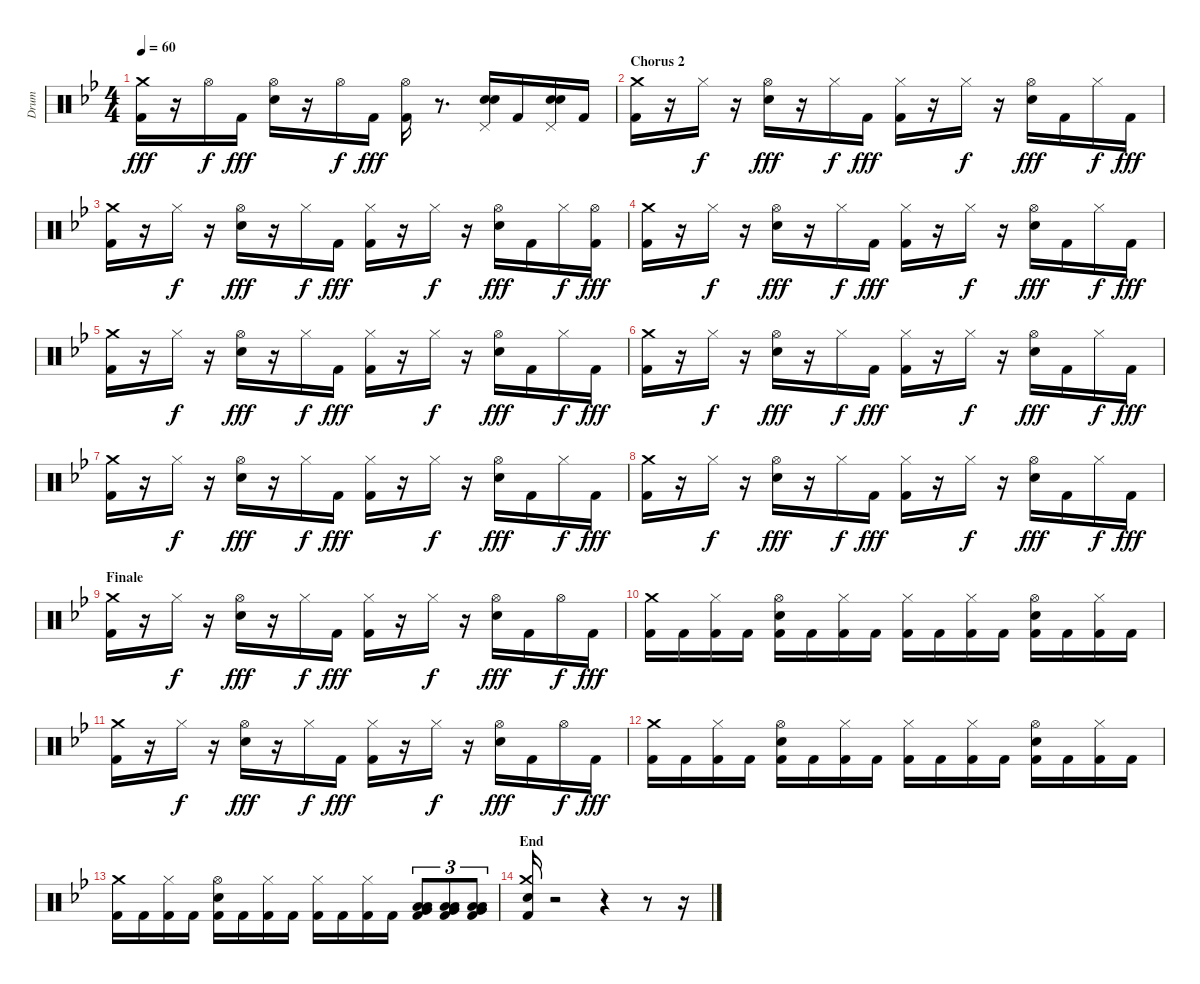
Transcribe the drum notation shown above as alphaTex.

\track ("Drum" "Drum") {instrument percussion}
\staff {score}
\articulation defaults
\ts (4 4)
\tempo 60
\clef neutral
\ks gminor
("Kick (hit) 2" "Crash medium (hit)").16{dy fff} r.16 "Hi-Hat (open)".16{dy f} "Kick (hit) 2".16{dy fff} ("Electric Snare (hit)" "Hi-Hat (open)").16 r.16 "Hi-Hat (open)".16{dy f} "Kick (hit) 2".16{dy fff} ("Kick (hit) 2" "Hi-Hat (open)").16 r.8{d} ("Electric Snare (hit)" "Electric Snare (hit)" "Pedal Hi-Hat (hit)").16 "Kick (hit) 2".16 ("Electric Snare (hit)" "Electric Snare (hit)" "Pedal Hi-Hat (hit)").16 "Kick (hit) 2".16 |
\section ("" "Chorus 2")
("Kick (hit) 2" "Crash medium (hit)").16 r.16 "Hi-Hat (closed)".16{dy f} r.16 ("Electric Snare (hit)" "Hi-Hat (open)").16{dy fff} r.16 "Hi-Hat (closed)".16{dy f} "Kick (hit) 2".16{dy fff} ("Kick (hit) 2" "Hi-Hat (closed)").16 r.16 "Hi-Hat (closed)".16{dy f} r.16 ("Electric Snare (hit)" "Hi-Hat (open)").16{dy fff} "Kick (hit) 2".16 "Hi-Hat (closed)".16{dy f} "Kick (hit) 2".16{dy fff} |
("Kick (hit) 2" "Crash medium (hit)").16 r.16 "Hi-Hat (closed)".16{dy f} r.16 ("Electric Snare (hit)" "Hi-Hat (open)").16{dy fff} r.16 "Hi-Hat (closed)".16{dy f} "Kick (hit) 2".16{dy fff} ("Kick (hit) 2" "Hi-Hat (closed)").16 r.16 "Hi-Hat (closed)".16{dy f} r.16 ("Electric Snare (hit)" "Hi-Hat (open)").16{dy fff} "Kick (hit) 2".16 "Hi-Hat (closed)".16{dy f} ("Kick (hit) 2" "Hi-Hat (open)").16{dy fff} |
("Kick (hit) 2" "Crash medium (hit)").16 r.16 "Hi-Hat (closed)".16{dy f} r.16 ("Electric Snare (hit)" "Hi-Hat (open)").16{dy fff} r.16 "Hi-Hat (closed)".16{dy f} "Kick (hit) 2".16{dy fff} ("Kick (hit) 2" "Hi-Hat (closed)").16 r.16 "Hi-Hat (closed)".16{dy f} r.16 ("Electric Snare (hit)" "Hi-Hat (open)").16{dy fff} "Kick (hit) 2".16 "Hi-Hat (closed)".16{dy f} "Kick (hit) 2".16{dy fff} |
("Kick (hit) 2" "Crash medium (hit)").16 r.16 "Hi-Hat (closed)".16{dy f} r.16 ("Electric Snare (hit)" "Hi-Hat (open)").16{dy fff} r.16 "Hi-Hat (closed)".16{dy f} "Kick (hit) 2".16{dy fff} ("Kick (hit) 2" "Hi-Hat (closed)").16 r.16 "Hi-Hat (closed)".16{dy f} r.16 ("Electric Snare (hit)" "Hi-Hat (open)").16{dy fff} "Kick (hit) 2".16 "Hi-Hat (closed)".16{dy f} "Kick (hit) 2".16{dy fff} |
("Kick (hit) 2" "Crash medium (hit)").16 r.16 "Hi-Hat (closed)".16{dy f} r.16 ("Electric Snare (hit)" "Hi-Hat (open)").16{dy fff} r.16 "Hi-Hat (closed)".16{dy f} "Kick (hit) 2".16{dy fff} ("Kick (hit) 2" "Hi-Hat (closed)").16 r.16 "Hi-Hat (closed)".16{dy f} r.16 ("Electric Snare (hit)" "Hi-Hat (open)").16{dy fff} "Kick (hit) 2".16 "Hi-Hat (closed)".16{dy f} "Kick (hit) 2".16{dy fff} |
("Kick (hit) 2" "Crash medium (hit)").16 r.16 "Hi-Hat (closed)".16{dy f} r.16 ("Electric Snare (hit)" "Hi-Hat (open)").16{dy fff} r.16 "Hi-Hat (closed)".16{dy f} "Kick (hit) 2".16{dy fff} ("Kick (hit) 2" "Hi-Hat (closed)").16 r.16 "Hi-Hat (closed)".16{dy f} r.16 ("Electric Snare (hit)" "Hi-Hat (open)").16{dy fff} "Kick (hit) 2".16 "Hi-Hat (closed)".16{dy f} "Kick (hit) 2".16{dy fff} |
("Kick (hit) 2" "Crash medium (hit)").16 r.16 "Hi-Hat (closed)".16{dy f} r.16 ("Electric Snare (hit)" "Hi-Hat (open)").16{dy fff} r.16 "Hi-Hat (closed)".16{dy f} "Kick (hit) 2".16{dy fff} ("Kick (hit) 2" "Hi-Hat (closed)").16 r.16 "Hi-Hat (closed)".16{dy f} r.16 ("Electric Snare (hit)" "Hi-Hat (open)").16{dy fff} "Kick (hit) 2".16 "Hi-Hat (closed)".16{dy f} "Kick (hit) 2".16{dy fff} |
\section ("" "Finale")
("Kick (hit) 2" "Crash medium (hit)").16 r.16 "Hi-Hat (closed)".16{dy f} r.16 ("Electric Snare (hit)" "Hi-Hat (open)").16{dy fff} r.16 "Hi-Hat (closed)".16{dy f} "Kick (hit) 2".16{dy fff} ("Kick (hit) 2" "Hi-Hat (closed)").16 r.16 "Hi-Hat (closed)".16{dy f} r.16 ("Electric Snare (hit)" "Hi-Hat (open)").16{dy fff} "Kick (hit) 2".16 "Hi-Hat (open)".16{dy f} "Kick (hit) 2".16{dy fff} |
("Kick (hit) 2" "Crash medium (hit)").16 "Kick (hit) 2".16 ("Kick (hit) 2" "Hi-Hat (closed)").16 "Kick (hit) 2".16 ("Kick (hit) 2" "Electric Snare (hit)" "Hi-Hat (open)").16 "Kick (hit) 2".16 ("Kick (hit) 2" "Hi-Hat (closed)").16 "Kick (hit) 2".16 ("Kick (hit) 2" "Hi-Hat (closed)").16 "Kick (hit) 2".16 ("Kick (hit) 2" "Hi-Hat (closed)").16 "Kick (hit) 2".16 ("Kick (hit) 2" "Electric Snare (hit)" "Hi-Hat (open)").16 "Kick (hit) 2".16 ("Kick (hit) 2" "Hi-Hat (closed)").16 "Kick (hit) 2".16 |
("Kick (hit) 2" "Crash medium (hit)").16 r.16 "Hi-Hat (closed)".16{dy f} r.16 ("Electric Snare (hit)" "Hi-Hat (open)").16{dy fff} r.16 "Hi-Hat (closed)".16{dy f} "Kick (hit) 2".16{dy fff} ("Kick (hit) 2" "Hi-Hat (closed)").16 r.16 "Hi-Hat (closed)".16{dy f} r.16 ("Electric Snare (hit)" "Hi-Hat (open)").16{dy fff} "Kick (hit) 2".16 "Hi-Hat (open)".16{dy f} "Kick (hit) 2".16{dy fff} |
("Kick (hit) 2" "Crash medium (hit)").16 "Kick (hit) 2".16 ("Kick (hit) 2" "Hi-Hat (closed)").16 "Kick (hit) 2".16 ("Kick (hit) 2" "Electric Snare (hit)" "Hi-Hat (open)").16 "Kick (hit) 2".16 ("Kick (hit) 2" "Hi-Hat (closed)").16 "Kick (hit) 2".16 ("Kick (hit) 2" "Hi-Hat (closed)").16 "Kick (hit) 2".16 ("Kick (hit) 2" "Hi-Hat (closed)").16 "Kick (hit) 2".16 ("Kick (hit) 2" "Electric Snare (hit)" "Hi-Hat (open)").16 "Kick (hit) 2".16 ("Kick (hit) 2" "Hi-Hat (closed)").16 "Kick (hit) 2".16 |
("Kick (hit) 2" "Crash medium (hit)").16 "Kick (hit) 2".16 ("Kick (hit) 2" "Hi-Hat (closed)").16 "Kick (hit) 2".16 ("Kick (hit) 2" "Electric Snare (hit)" "Hi-Hat (open)").16 "Kick (hit) 2".16 ("Kick (hit) 2" "Hi-Hat (closed)").16 "Kick (hit) 2".16 ("Kick (hit) 2" "Hi-Hat (closed)").16 "Kick (hit) 2".16 ("Kick (hit) 2" "Hi-Hat (closed)").16 "Kick (hit) 2".16 ("Low Floor Tom (hit)" "Kick (hit) 2" "Very Low Tom (hit)" "Low Floor Tom (hit)").8{tu (3 2)} ("Kick (hit) 2" "Low Floor Tom (hit)" "Very Low Tom (hit)" "Low Floor Tom (hit)").8{tu (3 2)} ("Kick (hit) 2" "Low Floor Tom (hit)" "Very Low Tom (hit)" "Low Floor Tom (hit)").8{tu (3 2)} |
\section ("" "End")
("Electric Snare (hit)" "Kick (hit) 2" "Crash medium (hit)").16 r.2 r.4 r.8 r.16
